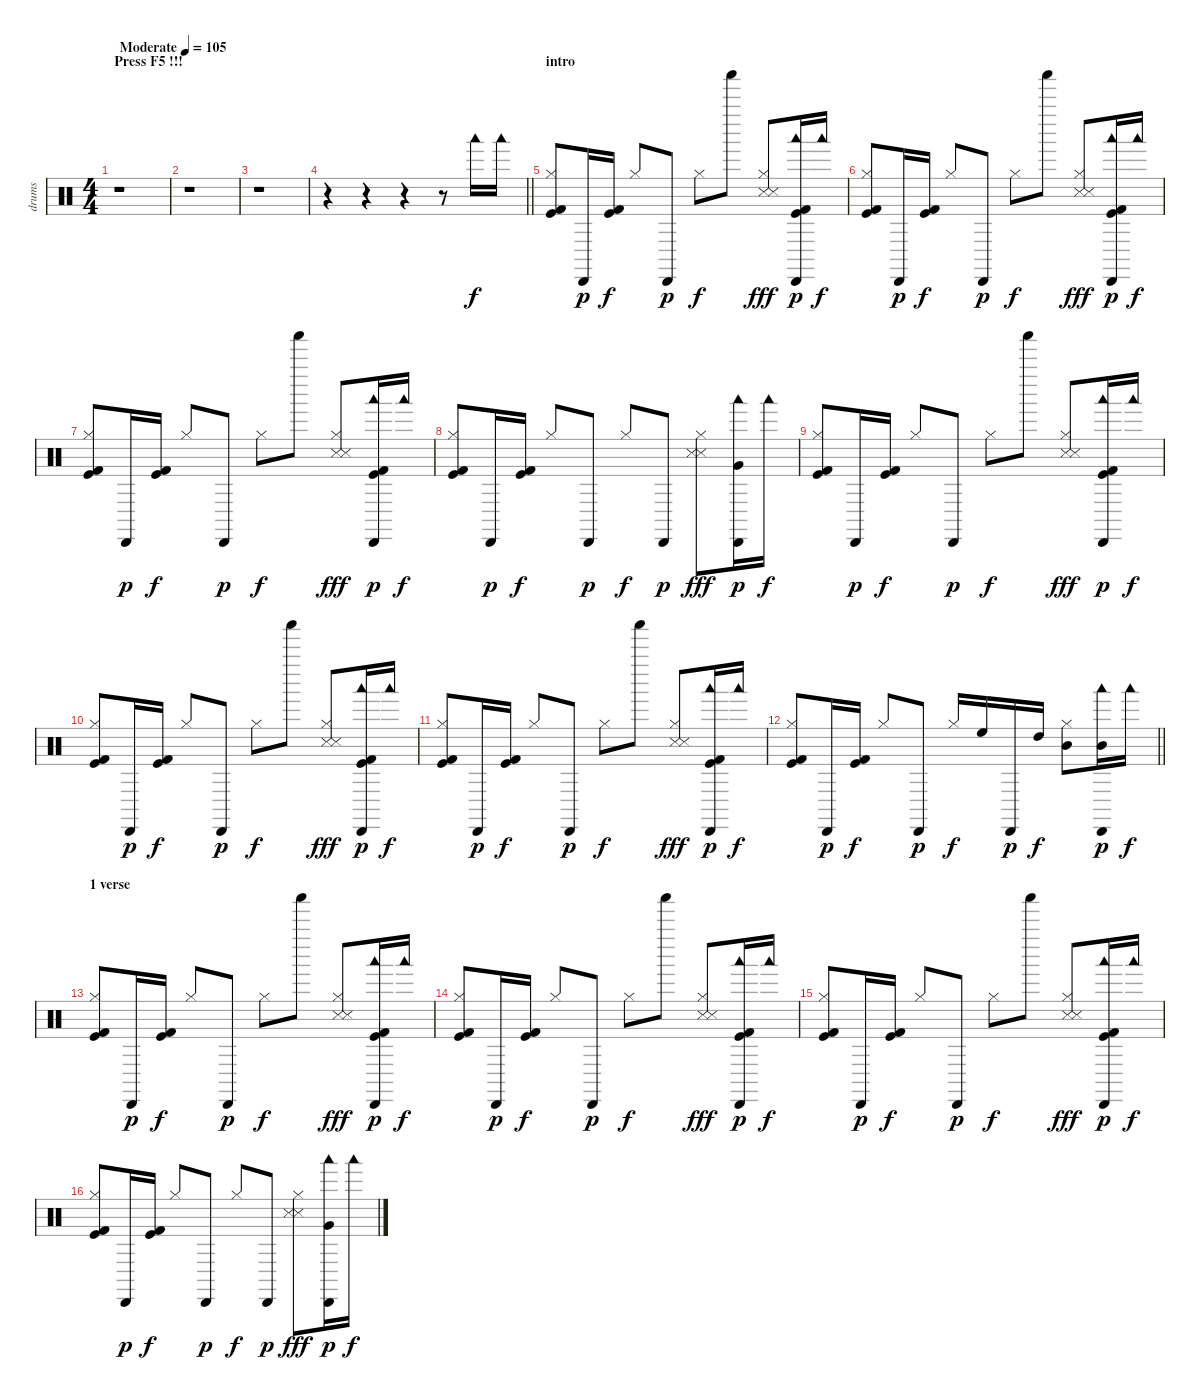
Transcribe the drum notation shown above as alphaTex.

\track ("drums" "drums") {instrument percussion}
\staff {score}
\articulation defaults
\ts (4 4)
\section ("" "Press F5 !!!")
\tempo (105 "Moderate")
\clef neutral
\ks c
r.1{dy f} |
r.1 |
r.1 |
\barLineRight lightlight
r.4 r.4 r.4 r.8 "Woodblock low (hit)".16 "Woodblock low (hit)".16 |
\section ("" "intro")
("Hi-Hat (closed)" "Kick (hit)" "Kick (hit) 2").8 "Cabasa (hit)".16{dy p} ("Kick (hit)" "Kick (hit) 2").16{dy f} "Hi-Hat (closed)".8 "Cabasa (hit)".8{dy p} "Hi-Hat (closed)".8{dy f} "Shaker (hit)".8 ("Hi-Hat (closed)" "Snare (side stick) 3" "Snare (side stick) 3").8{dy fff} ("Cabasa (hit)" "Woodblock low (hit)" "Kick (hit)" "Kick (hit) 2").16{dy p} "Woodblock low (hit)".16{dy f} |
("Hi-Hat (closed)" "Kick (hit)" "Kick (hit) 2").8 "Cabasa (hit)".16{dy p} ("Kick (hit)" "Kick (hit) 2").16{dy f} "Hi-Hat (closed)".8 "Cabasa (hit)".8{dy p} "Hi-Hat (closed)".8{dy f} "Shaker (hit)".8 ("Hi-Hat (closed)" "Snare (side stick) 3" "Snare (side stick) 3").8{dy fff} ("Cabasa (hit)" "Woodblock low (hit)" "Kick (hit)" "Kick (hit) 2").16{dy p} "Woodblock low (hit)".16{dy f} |
("Hi-Hat (closed)" "Kick (hit)" "Kick (hit) 2").8 "Cabasa (hit)".16{dy p} ("Kick (hit)" "Kick (hit) 2").16{dy f} "Hi-Hat (closed)".8 "Cabasa (hit)".8{dy p} "Hi-Hat (closed)".8{dy f} "Shaker (hit)".8 ("Hi-Hat (closed)" "Snare (side stick) 3" "Snare (side stick) 3").8{dy fff} ("Cabasa (hit)" "Woodblock low (hit)" "Kick (hit)" "Kick (hit) 2").16{dy p} "Woodblock low (hit)".16{dy f} |
("Hi-Hat (closed)" "Kick (hit)" "Kick (hit) 2").8 "Cabasa (hit)".16{dy p} ("Kick (hit)" "Kick (hit) 2").16{dy f} "Hi-Hat (closed)".8 "Cabasa (hit)".8{dy p} "Hi-Hat (closed)".8{dy f} "Cabasa (hit)".8{dy p} ("Hi-Hat (closed)" "Snare (side stick) 3" "Snare (side stick) 3").8{dy fff} ("Cabasa (hit)" "Woodblock low (hit)" "Very Low Tom (hit)").16{dy p} "Woodblock low (hit)".16{dy f} |
("Hi-Hat (closed)" "Kick (hit)" "Kick (hit) 2").8 "Cabasa (hit)".16{dy p} ("Kick (hit)" "Kick (hit) 2").16{dy f} "Hi-Hat (closed)".8 "Cabasa (hit)".8{dy p} "Hi-Hat (closed)".8{dy f} "Shaker (hit)".8 ("Hi-Hat (closed)" "Snare (side stick) 3" "Snare (side stick) 3").8{dy fff} ("Cabasa (hit)" "Woodblock low (hit)" "Kick (hit)" "Kick (hit) 2").16{dy p} "Woodblock low (hit)".16{dy f} |
("Hi-Hat (closed)" "Kick (hit)" "Kick (hit) 2").8 "Cabasa (hit)".16{dy p} ("Kick (hit)" "Kick (hit) 2").16{dy f} "Hi-Hat (closed)".8 "Cabasa (hit)".8{dy p} "Hi-Hat (closed)".8{dy f} "Shaker (hit)".8 ("Hi-Hat (closed)" "Snare (side stick) 3" "Snare (side stick) 3").8{dy fff} ("Cabasa (hit)" "Woodblock low (hit)" "Kick (hit)" "Kick (hit) 2").16{dy p} "Woodblock low (hit)".16{dy f} |
("Hi-Hat (closed)" "Kick (hit)" "Kick (hit) 2").8 "Cabasa (hit)".16{dy p} ("Kick (hit)" "Kick (hit) 2").16{dy f} "Hi-Hat (closed)".8 "Cabasa (hit)".8{dy p} "Hi-Hat (closed)".8{dy f} "Shaker (hit)".8 ("Hi-Hat (closed)" "Snare (side stick) 3" "Snare (side stick) 3").8{dy fff} ("Cabasa (hit)" "Woodblock low (hit)" "Kick (hit)" "Kick (hit) 2").16{dy p} "Woodblock low (hit)".16{dy f} |
\barLineRight lightlight
("Hi-Hat (closed)" "Kick (hit)" "Kick (hit) 2").8 "Cabasa (hit)".16{dy p} ("Kick (hit)" "Kick (hit) 2").16{dy f} "Hi-Hat (closed)".8 "Cabasa (hit)".8{dy p} "Hi-Hat (closed)".16{dy f} "High Floor Tom (hit)".16{balance 2} "Cabasa (hit)".16{dy p} "High Tom (hit)".16{dy f} ("Hi-Hat (closed)" "Mid Tom (hit)").8{balance 14} ("Cabasa (hit)" "Woodblock low (hit)" "Mid Tom (hit)").16{dy p} "Woodblock low (hit)".16{dy f} |
\section ("" "1 verse")
("Hi-Hat (closed)" "Kick (hit)" "Kick (hit) 2").8{balance 8} "Cabasa (hit)".16{dy p} ("Kick (hit)" "Kick (hit) 2").16{dy f} "Hi-Hat (closed)".8 "Cabasa (hit)".8{dy p} "Hi-Hat (closed)".8{dy f} "Shaker (hit)".8 ("Hi-Hat (closed)" "Snare (side stick) 3" "Snare (side stick) 3").8{dy fff} ("Cabasa (hit)" "Woodblock low (hit)" "Kick (hit)" "Kick (hit) 2").16{dy p} "Woodblock low (hit)".16{dy f} |
("Hi-Hat (closed)" "Kick (hit)" "Kick (hit) 2").8 "Cabasa (hit)".16{dy p} ("Kick (hit)" "Kick (hit) 2").16{dy f} "Hi-Hat (closed)".8 "Cabasa (hit)".8{dy p} "Hi-Hat (closed)".8{dy f} "Shaker (hit)".8 ("Hi-Hat (closed)" "Snare (side stick) 3" "Snare (side stick) 3").8{dy fff} ("Cabasa (hit)" "Woodblock low (hit)" "Kick (hit)" "Kick (hit) 2").16{dy p} "Woodblock low (hit)".16{dy f} |
("Hi-Hat (closed)" "Kick (hit)" "Kick (hit) 2").8 "Cabasa (hit)".16{dy p} ("Kick (hit)" "Kick (hit) 2").16{dy f} "Hi-Hat (closed)".8 "Cabasa (hit)".8{dy p} "Hi-Hat (closed)".8{dy f} "Shaker (hit)".8 ("Hi-Hat (closed)" "Snare (side stick) 3" "Snare (side stick) 3").8{dy fff} ("Cabasa (hit)" "Woodblock low (hit)" "Kick (hit)" "Kick (hit) 2").16{dy p} "Woodblock low (hit)".16{dy f} |
("Hi-Hat (closed)" "Kick (hit)" "Kick (hit) 2").8 "Cabasa (hit)".16{dy p} ("Kick (hit)" "Kick (hit) 2").16{dy f} "Hi-Hat (closed)".8 "Cabasa (hit)".8{dy p} "Hi-Hat (closed)".8{dy f} "Cabasa (hit)".8{dy p} ("Hi-Hat (closed)" "Snare (side stick) 3" "Snare (side stick) 3").8{dy fff} ("Cabasa (hit)" "Woodblock low (hit)" "Very Low Tom (hit)").16{dy p} "Woodblock low (hit)".16{dy f}
